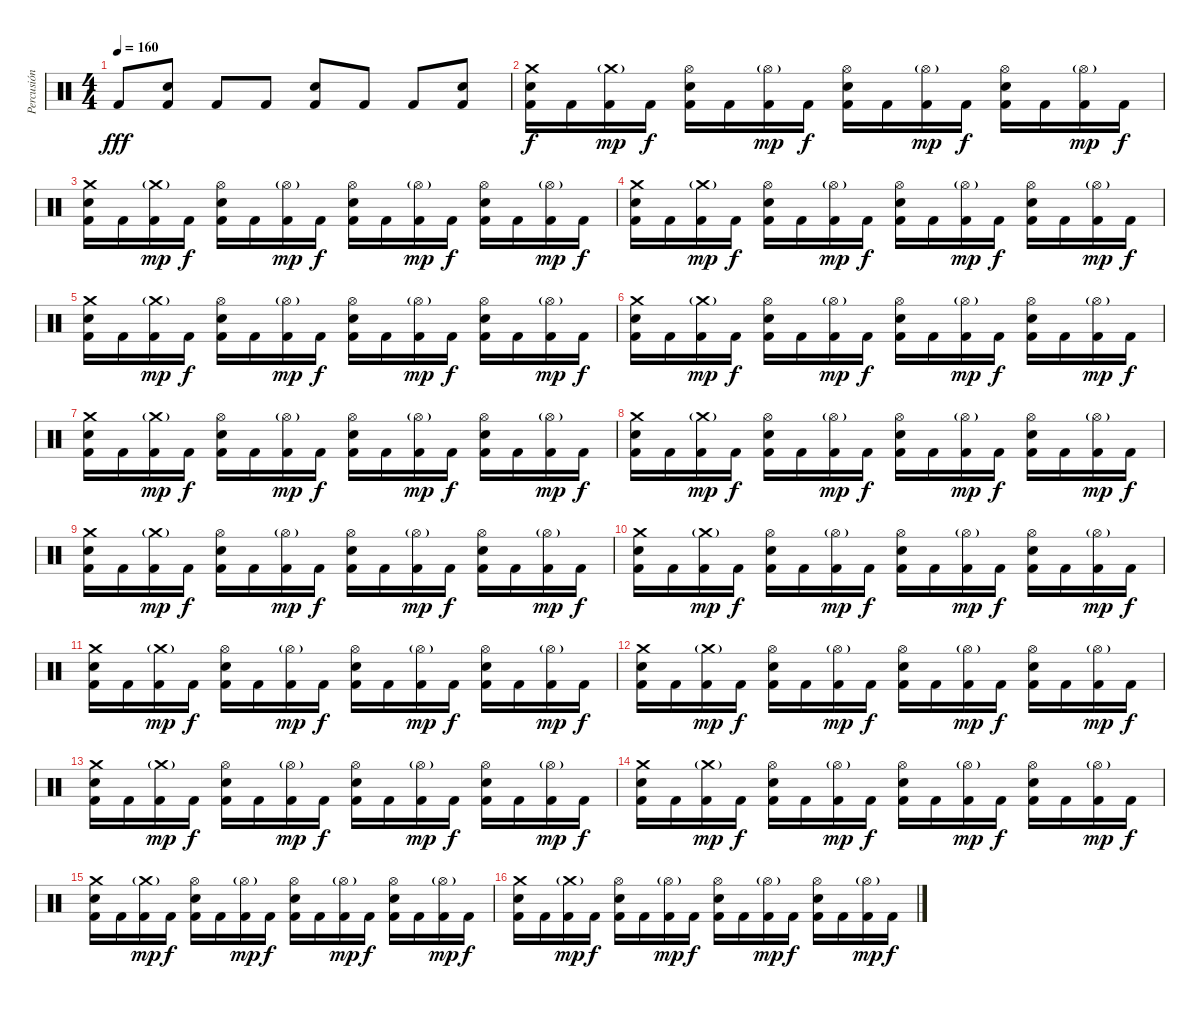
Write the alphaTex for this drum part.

\track ("Percusión" "Percusión") {instrument percussion}
\staff {score}
\articulation defaults
\ts (4 4)
\tempo 160
\clef neutral
\ks c "Kick (hit) 2".8{dy fff}
("Snare (hit) 2" "Kick (hit) 2").8 "Kick (hit) 2".8 "Kick (hit) 2".8 ("Snare (hit) 2" "Kick (hit) 2").8 "Kick (hit) 2".8 "Kick (hit) 2".8 ("Snare (hit) 2" "Kick (hit) 2").8 |
("Crash medium (hit)" "Electric Snare (hit)" "Kick (hit) 2").16{dy f} "Kick (hit) 2".16 ("Crash medium (hit)"{g} "Kick (hit) 2").16{dy mp} "Kick (hit) 2".16{dy f} ("Hi-Hat (open)" "Electric Snare (hit)" "Kick (hit) 2").16 "Kick (hit) 2".16 ("Hi-Hat (open)"{g} "Kick (hit) 2").16{dy mp} "Kick (hit) 2".16{dy f} ("Hi-Hat (open)" "Electric Snare (hit)" "Kick (hit) 2").16 "Kick (hit) 2".16 ("Hi-Hat (open)"{g} "Kick (hit) 2").16{dy mp} "Kick (hit) 2".16{dy f} ("Hi-Hat (open)" "Electric Snare (hit)" "Kick (hit) 2").16 "Kick (hit) 2".16 ("Hi-Hat (open)"{g} "Kick (hit) 2").16{dy mp} "Kick (hit) 2".16{dy f} |
("Crash medium (hit)" "Electric Snare (hit)" "Kick (hit) 2").16 "Kick (hit) 2".16 ("Crash medium (hit)"{g} "Kick (hit) 2").16{dy mp} "Kick (hit) 2".16{dy f} ("Hi-Hat (open)" "Electric Snare (hit)" "Kick (hit) 2").16 "Kick (hit) 2".16 ("Hi-Hat (open)"{g} "Kick (hit) 2").16{dy mp} "Kick (hit) 2".16{dy f} ("Hi-Hat (open)" "Electric Snare (hit)" "Kick (hit) 2").16 "Kick (hit) 2".16 ("Hi-Hat (open)"{g} "Kick (hit) 2").16{dy mp} "Kick (hit) 2".16{dy f} ("Hi-Hat (open)" "Electric Snare (hit)" "Kick (hit) 2").16 "Kick (hit) 2".16 ("Hi-Hat (open)"{g} "Kick (hit) 2").16{dy mp} "Kick (hit) 2".16{dy f} |
("Crash medium (hit)" "Electric Snare (hit)" "Kick (hit) 2").16 "Kick (hit) 2".16 ("Crash medium (hit)"{g} "Kick (hit) 2").16{dy mp} "Kick (hit) 2".16{dy f} ("Hi-Hat (open)" "Electric Snare (hit)" "Kick (hit) 2").16 "Kick (hit) 2".16 ("Hi-Hat (open)"{g} "Kick (hit) 2").16{dy mp} "Kick (hit) 2".16{dy f} ("Hi-Hat (open)" "Electric Snare (hit)" "Kick (hit) 2").16 "Kick (hit) 2".16 ("Hi-Hat (open)"{g} "Kick (hit) 2").16{dy mp} "Kick (hit) 2".16{dy f} ("Hi-Hat (open)" "Electric Snare (hit)" "Kick (hit) 2").16 "Kick (hit) 2".16 ("Hi-Hat (open)"{g} "Kick (hit) 2").16{dy mp} "Kick (hit) 2".16{dy f} |
("Crash medium (hit)" "Electric Snare (hit)" "Kick (hit) 2").16 "Kick (hit) 2".16 ("Crash medium (hit)"{g} "Kick (hit) 2").16{dy mp} "Kick (hit) 2".16{dy f} ("Hi-Hat (open)" "Electric Snare (hit)" "Kick (hit) 2").16 "Kick (hit) 2".16 ("Hi-Hat (open)"{g} "Kick (hit) 2").16{dy mp} "Kick (hit) 2".16{dy f} ("Hi-Hat (open)" "Electric Snare (hit)" "Kick (hit) 2").16 "Kick (hit) 2".16 ("Hi-Hat (open)"{g} "Kick (hit) 2").16{dy mp} "Kick (hit) 2".16{dy f} ("Hi-Hat (open)" "Electric Snare (hit)" "Kick (hit) 2").16 "Kick (hit) 2".16 ("Hi-Hat (open)"{g} "Kick (hit) 2").16{dy mp} "Kick (hit) 2".16{dy f} |
("Crash medium (hit)" "Electric Snare (hit)" "Kick (hit) 2").16 "Kick (hit) 2".16 ("Crash medium (hit)"{g} "Kick (hit) 2").16{dy mp} "Kick (hit) 2".16{dy f} ("Hi-Hat (open)" "Electric Snare (hit)" "Kick (hit) 2").16 "Kick (hit) 2".16 ("Hi-Hat (open)"{g} "Kick (hit) 2").16{dy mp} "Kick (hit) 2".16{dy f} ("Hi-Hat (open)" "Electric Snare (hit)" "Kick (hit) 2").16 "Kick (hit) 2".16 ("Hi-Hat (open)"{g} "Kick (hit) 2").16{dy mp} "Kick (hit) 2".16{dy f} ("Hi-Hat (open)" "Electric Snare (hit)" "Kick (hit) 2").16 "Kick (hit) 2".16 ("Hi-Hat (open)"{g} "Kick (hit) 2").16{dy mp} "Kick (hit) 2".16{dy f} |
("Crash medium (hit)" "Electric Snare (hit)" "Kick (hit) 2").16 "Kick (hit) 2".16 ("Crash medium (hit)"{g} "Kick (hit) 2").16{dy mp} "Kick (hit) 2".16{dy f} ("Hi-Hat (open)" "Electric Snare (hit)" "Kick (hit) 2").16 "Kick (hit) 2".16 ("Hi-Hat (open)"{g} "Kick (hit) 2").16{dy mp} "Kick (hit) 2".16{dy f} ("Hi-Hat (open)" "Electric Snare (hit)" "Kick (hit) 2").16 "Kick (hit) 2".16 ("Hi-Hat (open)"{g} "Kick (hit) 2").16{dy mp} "Kick (hit) 2".16{dy f} ("Hi-Hat (open)" "Electric Snare (hit)" "Kick (hit) 2").16 "Kick (hit) 2".16 ("Hi-Hat (open)"{g} "Kick (hit) 2").16{dy mp} "Kick (hit) 2".16{dy f} |
("Crash medium (hit)" "Electric Snare (hit)" "Kick (hit) 2").16 "Kick (hit) 2".16 ("Crash medium (hit)"{g} "Kick (hit) 2").16{dy mp} "Kick (hit) 2".16{dy f} ("Hi-Hat (open)" "Electric Snare (hit)" "Kick (hit) 2").16 "Kick (hit) 2".16 ("Hi-Hat (open)"{g} "Kick (hit) 2").16{dy mp} "Kick (hit) 2".16{dy f} ("Hi-Hat (open)" "Electric Snare (hit)" "Kick (hit) 2").16 "Kick (hit) 2".16 ("Hi-Hat (open)"{g} "Kick (hit) 2").16{dy mp} "Kick (hit) 2".16{dy f} ("Hi-Hat (open)" "Electric Snare (hit)" "Kick (hit) 2").16 "Kick (hit) 2".16 ("Hi-Hat (open)"{g} "Kick (hit) 2").16{dy mp} "Kick (hit) 2".16{dy f} |
("Crash medium (hit)" "Electric Snare (hit)" "Kick (hit) 2").16 "Kick (hit) 2".16 ("Crash medium (hit)"{g} "Kick (hit) 2").16{dy mp} "Kick (hit) 2".16{dy f} ("Hi-Hat (open)" "Electric Snare (hit)" "Kick (hit) 2").16 "Kick (hit) 2".16 ("Hi-Hat (open)"{g} "Kick (hit) 2").16{dy mp} "Kick (hit) 2".16{dy f} ("Hi-Hat (open)" "Electric Snare (hit)" "Kick (hit) 2").16 "Kick (hit) 2".16 ("Hi-Hat (open)"{g} "Kick (hit) 2").16{dy mp} "Kick (hit) 2".16{dy f} ("Hi-Hat (open)" "Electric Snare (hit)" "Kick (hit) 2").16 "Kick (hit) 2".16 ("Hi-Hat (open)"{g} "Kick (hit) 2").16{dy mp} "Kick (hit) 2".16{dy f} |
("Crash medium (hit)" "Electric Snare (hit)" "Kick (hit) 2").16 "Kick (hit) 2".16 ("Crash medium (hit)"{g} "Kick (hit) 2").16{dy mp} "Kick (hit) 2".16{dy f} ("Hi-Hat (open)" "Electric Snare (hit)" "Kick (hit) 2").16 "Kick (hit) 2".16 ("Hi-Hat (open)"{g} "Kick (hit) 2").16{dy mp} "Kick (hit) 2".16{dy f} ("Hi-Hat (open)" "Electric Snare (hit)" "Kick (hit) 2").16 "Kick (hit) 2".16 ("Hi-Hat (open)"{g} "Kick (hit) 2").16{dy mp} "Kick (hit) 2".16{dy f} ("Hi-Hat (open)" "Electric Snare (hit)" "Kick (hit) 2").16 "Kick (hit) 2".16 ("Hi-Hat (open)"{g} "Kick (hit) 2").16{dy mp} "Kick (hit) 2".16{dy f} |
("Crash medium (hit)" "Electric Snare (hit)" "Kick (hit) 2").16 "Kick (hit) 2".16 ("Crash medium (hit)"{g} "Kick (hit) 2").16{dy mp} "Kick (hit) 2".16{dy f} ("Hi-Hat (open)" "Electric Snare (hit)" "Kick (hit) 2").16 "Kick (hit) 2".16 ("Hi-Hat (open)"{g} "Kick (hit) 2").16{dy mp} "Kick (hit) 2".16{dy f} ("Hi-Hat (open)" "Electric Snare (hit)" "Kick (hit) 2").16 "Kick (hit) 2".16 ("Hi-Hat (open)"{g} "Kick (hit) 2").16{dy mp} "Kick (hit) 2".16{dy f} ("Hi-Hat (open)" "Electric Snare (hit)" "Kick (hit) 2").16 "Kick (hit) 2".16 ("Hi-Hat (open)"{g} "Kick (hit) 2").16{dy mp} "Kick (hit) 2".16{dy f} |
("Crash medium (hit)" "Electric Snare (hit)" "Kick (hit) 2").16 "Kick (hit) 2".16 ("Crash medium (hit)"{g} "Kick (hit) 2").16{dy mp} "Kick (hit) 2".16{dy f} ("Hi-Hat (open)" "Electric Snare (hit)" "Kick (hit) 2").16 "Kick (hit) 2".16 ("Hi-Hat (open)"{g} "Kick (hit) 2").16{dy mp} "Kick (hit) 2".16{dy f} ("Hi-Hat (open)" "Electric Snare (hit)" "Kick (hit) 2").16 "Kick (hit) 2".16 ("Hi-Hat (open)"{g} "Kick (hit) 2").16{dy mp} "Kick (hit) 2".16{dy f} ("Hi-Hat (open)" "Electric Snare (hit)" "Kick (hit) 2").16 "Kick (hit) 2".16 ("Hi-Hat (open)"{g} "Kick (hit) 2").16{dy mp} "Kick (hit) 2".16{dy f} |
("Crash medium (hit)" "Electric Snare (hit)" "Kick (hit) 2").16 "Kick (hit) 2".16 ("Crash medium (hit)"{g} "Kick (hit) 2").16{dy mp} "Kick (hit) 2".16{dy f} ("Hi-Hat (open)" "Electric Snare (hit)" "Kick (hit) 2").16 "Kick (hit) 2".16 ("Hi-Hat (open)"{g} "Kick (hit) 2").16{dy mp} "Kick (hit) 2".16{dy f} ("Hi-Hat (open)" "Electric Snare (hit)" "Kick (hit) 2").16 "Kick (hit) 2".16 ("Hi-Hat (open)"{g} "Kick (hit) 2").16{dy mp} "Kick (hit) 2".16{dy f} ("Hi-Hat (open)" "Electric Snare (hit)" "Kick (hit) 2").16 "Kick (hit) 2".16 ("Hi-Hat (open)"{g} "Kick (hit) 2").16{dy mp} "Kick (hit) 2".16{dy f} |
("Crash medium (hit)" "Electric Snare (hit)" "Kick (hit) 2").16 "Kick (hit) 2".16 ("Crash medium (hit)"{g} "Kick (hit) 2").16{dy mp} "Kick (hit) 2".16{dy f} ("Hi-Hat (open)" "Electric Snare (hit)" "Kick (hit) 2").16 "Kick (hit) 2".16 ("Hi-Hat (open)"{g} "Kick (hit) 2").16{dy mp} "Kick (hit) 2".16{dy f} ("Hi-Hat (open)" "Electric Snare (hit)" "Kick (hit) 2").16 "Kick (hit) 2".16 ("Hi-Hat (open)"{g} "Kick (hit) 2").16{dy mp} "Kick (hit) 2".16{dy f} ("Hi-Hat (open)" "Electric Snare (hit)" "Kick (hit) 2").16 "Kick (hit) 2".16 ("Hi-Hat (open)"{g} "Kick (hit) 2").16{dy mp} "Kick (hit) 2".16{dy f} |
("Crash medium (hit)" "Electric Snare (hit)" "Kick (hit) 2").16 "Kick (hit) 2".16 ("Crash medium (hit)"{g} "Kick (hit) 2").16{dy mp} "Kick (hit) 2".16{dy f} ("Hi-Hat (open)" "Electric Snare (hit)" "Kick (hit) 2").16 "Kick (hit) 2".16 ("Hi-Hat (open)"{g} "Kick (hit) 2").16{dy mp} "Kick (hit) 2".16{dy f} ("Hi-Hat (open)" "Electric Snare (hit)" "Kick (hit) 2").16 "Kick (hit) 2".16 ("Hi-Hat (open)"{g} "Kick (hit) 2").16{dy mp} "Kick (hit) 2".16{dy f} ("Hi-Hat (open)" "Electric Snare (hit)" "Kick (hit) 2").16 "Kick (hit) 2".16 ("Hi-Hat (open)"{g} "Kick (hit) 2").16{dy mp} "Kick (hit) 2".16{dy f} |
("Crash medium (hit)" "Electric Snare (hit)" "Kick (hit) 2").16 "Kick (hit) 2".16 ("Crash medium (hit)"{g} "Kick (hit) 2").16{dy mp} "Kick (hit) 2".16{dy f} ("Hi-Hat (open)" "Electric Snare (hit)" "Kick (hit) 2").16 "Kick (hit) 2".16 ("Hi-Hat (open)"{g} "Kick (hit) 2").16{dy mp} "Kick (hit) 2".16{dy f} ("Hi-Hat (open)" "Electric Snare (hit)" "Kick (hit) 2").16 "Kick (hit) 2".16 ("Hi-Hat (open)"{g} "Kick (hit) 2").16{dy mp} "Kick (hit) 2".16{dy f} ("Hi-Hat (open)" "Electric Snare (hit)" "Kick (hit) 2").16 "Kick (hit) 2".16 ("Hi-Hat (open)"{g} "Kick (hit) 2").16{dy mp} "Kick (hit) 2".16{dy f}
